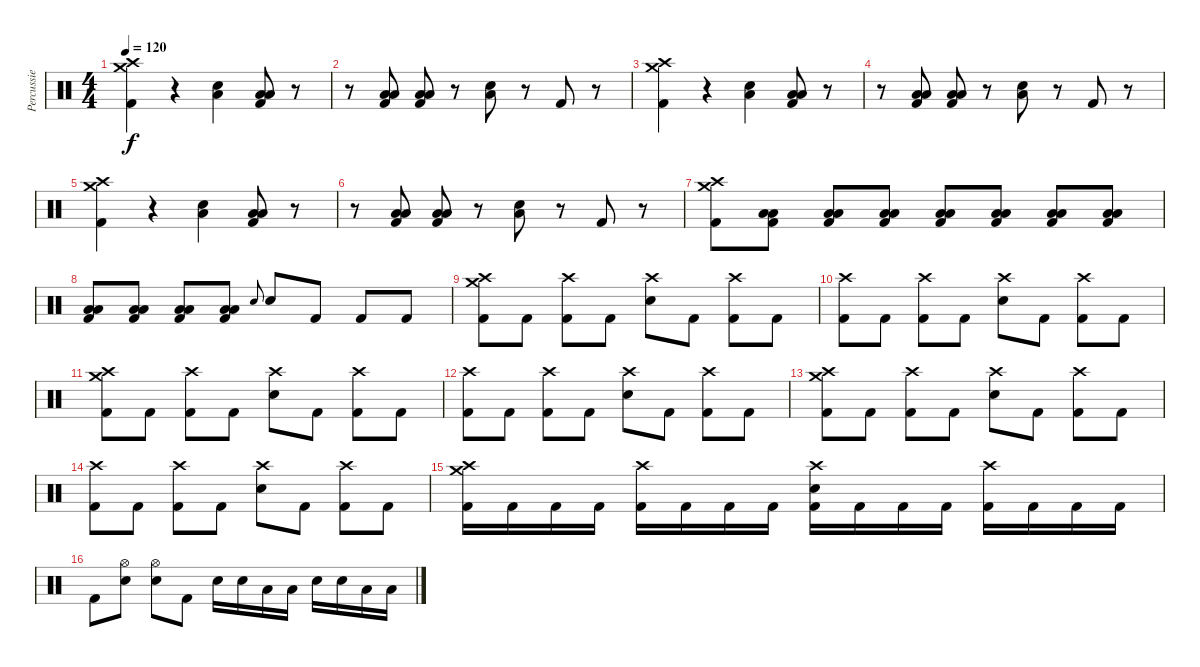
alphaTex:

\track ("Percussie" "Percussie") {instrument percussion}
\staff {score}
\articulation defaults
\ts (4 4)
\tempo 120
\clef neutral
\ks c
("Crash medium (hit)" "Crash high (hit)" "Kick (hit) 2").4{dy f} r.4 ("Low Floor Tom (hit)" "Electric Snare (hit)").4 ("Low Tom (hit)" "Low Floor Tom (hit)" "Kick (hit) 2").8 r.8 |
r.8 ("Low Tom (hit)" "Low Floor Tom (hit)" "Kick (hit) 2").8 ("Low Tom (hit)" "Low Floor Tom (hit)" "Kick (hit) 2").8 r.8 ("Low Floor Tom (hit)" "Electric Snare (hit)").8 r.8 "Kick (hit) 2".8 r.8 |
("Crash medium (hit)" "Crash high (hit)" "Kick (hit) 2").4 r.4 ("Low Floor Tom (hit)" "Electric Snare (hit)").4 ("Low Tom (hit)" "Low Floor Tom (hit)" "Kick (hit) 2").8 r.8 |
r.8 ("Low Tom (hit)" "Low Floor Tom (hit)" "Kick (hit) 2").8 ("Low Tom (hit)" "Low Floor Tom (hit)" "Kick (hit) 2").8 r.8 ("Low Floor Tom (hit)" "Electric Snare (hit)").8 r.8 "Kick (hit) 2".8 r.8 |
("Crash medium (hit)" "Crash high (hit)" "Kick (hit) 2").4 r.4 ("Low Floor Tom (hit)" "Electric Snare (hit)").4 ("Low Tom (hit)" "Low Floor Tom (hit)" "Kick (hit) 2").8 r.8 |
r.8 ("Low Tom (hit)" "Low Floor Tom (hit)" "Kick (hit) 2").8 ("Low Tom (hit)" "Low Floor Tom (hit)" "Kick (hit) 2").8 r.8 ("Low Floor Tom (hit)" "Electric Snare (hit)").8 r.8 "Kick (hit) 2".8 r.8 |
("Crash medium (hit)" "Crash high (hit)" "Kick (hit) 2").8 ("Low Tom (hit)" "Low Floor Tom (hit)" "Kick (hit) 2").8 ("Low Tom (hit)" "Low Floor Tom (hit)" "Kick (hit) 2").8 ("Low Tom (hit)" "Low Floor Tom (hit)" "Kick (hit) 2").8 ("Low Tom (hit)" "Low Floor Tom (hit)" "Kick (hit) 2").8 ("Low Tom (hit)" "Low Floor Tom (hit)" "Kick (hit) 2").8 ("Low Tom (hit)" "Low Floor Tom (hit)" "Kick (hit) 2").8 ("Low Tom (hit)" "Low Floor Tom (hit)" "Kick (hit) 2").8 |
("Low Tom (hit)" "Low Floor Tom (hit)" "Kick (hit) 2").8 ("Low Tom (hit)" "Low Floor Tom (hit)" "Kick (hit) 2").8 ("Low Tom (hit)" "Low Floor Tom (hit)" "Kick (hit) 2").8 ("Low Tom (hit)" "Low Floor Tom (hit)" "Kick (hit) 2").8 "Electric Snare (hit)".8{gr onbeat} "Electric Snare (hit)".8 "Kick (hit) 2".8 "Kick (hit) 2".8 "Kick (hit) 2".8 |
("Crash medium (hit)" "Crash high (hit)" "Kick (hit) 2").8 "Kick (hit) 2".8 ("Crash high (hit)" "Kick (hit) 2").8 "Kick (hit) 2".8 ("Crash high (hit)" "Electric Snare (hit)").8 "Kick (hit) 2".8 ("Crash high (hit)" "Kick (hit) 2").8 "Kick (hit) 2".8 |
("Crash high (hit)" "Kick (hit) 2").8 "Kick (hit) 2".8 ("Crash high (hit)" "Kick (hit) 2").8 "Kick (hit) 2".8 ("Crash high (hit)" "Electric Snare (hit)").8 "Kick (hit) 2".8 ("Crash high (hit)" "Kick (hit) 2").8 "Kick (hit) 2".8 |
("Crash medium (hit)" "Crash high (hit)" "Kick (hit) 2").8 "Kick (hit) 2".8 ("Crash high (hit)" "Kick (hit) 2").8 "Kick (hit) 2".8 ("Crash high (hit)" "Electric Snare (hit)").8 "Kick (hit) 2".8 ("Crash high (hit)" "Kick (hit) 2").8 "Kick (hit) 2".8 |
("Crash high (hit)" "Kick (hit) 2").8 "Kick (hit) 2".8 ("Crash high (hit)" "Kick (hit) 2").8 "Kick (hit) 2".8 ("Crash high (hit)" "Electric Snare (hit)").8 "Kick (hit) 2".8 ("Crash high (hit)" "Kick (hit) 2").8 "Kick (hit) 2".8 |
("Crash medium (hit)" "Crash high (hit)" "Kick (hit) 2").8 "Kick (hit) 2".8 ("Crash high (hit)" "Kick (hit) 2").8 "Kick (hit) 2".8 ("Crash high (hit)" "Electric Snare (hit)").8 "Kick (hit) 2".8 ("Crash high (hit)" "Kick (hit) 2").8 "Kick (hit) 2".8 |
("Crash high (hit)" "Kick (hit) 2").8 "Kick (hit) 2".8 ("Crash high (hit)" "Kick (hit) 2").8 "Kick (hit) 2".8 ("Crash high (hit)" "Electric Snare (hit)").8 "Kick (hit) 2".8 ("Crash high (hit)" "Kick (hit) 2").8 "Kick (hit) 2".8 |
("Crash medium (hit)" "Crash high (hit)" "Kick (hit) 2").16 "Kick (hit) 2".16 "Kick (hit) 2".16 "Kick (hit) 2".16 ("Crash high (hit)" "Kick (hit) 2").16 "Kick (hit) 2".16 "Kick (hit) 2".16 "Kick (hit) 2".16 ("Crash high (hit)" "Electric Snare (hit)" "Kick (hit) 2").16 "Kick (hit) 2".16 "Kick (hit) 2".16 "Kick (hit) 2".16 ("Crash high (hit)" "Kick (hit) 2").16 "Kick (hit) 2".16 "Kick (hit) 2".16 "Kick (hit) 2".16 |
"Kick (hit) 2".8 ("Hi-Hat (open)" "Electric Snare (hit)").8 ("Hi-Hat (open)" "Electric Snare (hit)").8 "Kick (hit) 2".8 "Electric Snare (hit)".16 "Electric Snare (hit)".16 "Low Tom (hit)".16 "Low Tom (hit)".16 "Electric Snare (hit)".16 "Electric Snare (hit)".16 "Low Floor Tom (hit)".16 "Low Floor Tom (hit)".16
